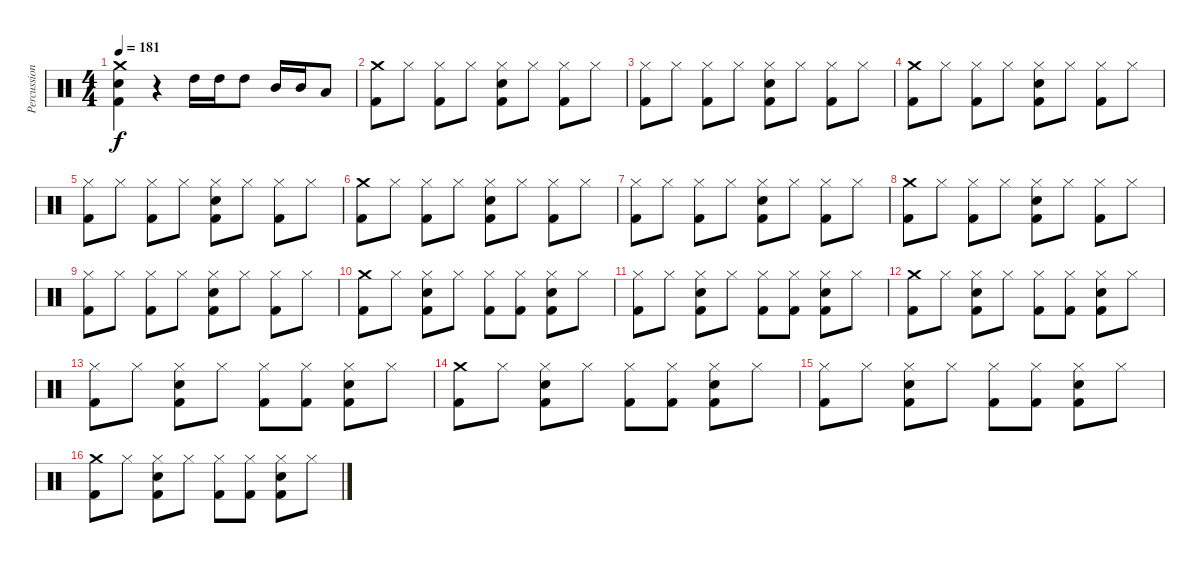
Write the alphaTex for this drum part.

\track ("Percussion" "Percussion") {instrument percussion}
\staff {score}
\articulation defaults
\ts (4 4)
\tempo 181
\clef neutral
\ks c
("Crash medium (hit)" "Electric Snare (hit)" "Kick (hit) 2").4{dy f} r.4 "High Tom (hit)".16 "High Tom (hit)".16 "High Tom (hit)".8 "Mid Tom (hit)".16 "Mid Tom (hit)".16 "Low Tom (hit)".8 |
("Crash medium (hit)" "Kick (hit) 2").8 "Hi-Hat (closed)".8 ("Hi-Hat (closed)" "Kick (hit) 2").8 "Hi-Hat (closed)".8 ("Hi-Hat (closed)" "Electric Snare (hit)" "Kick (hit) 2").8 "Hi-Hat (closed)".8 ("Hi-Hat (closed)" "Kick (hit) 2").8 "Hi-Hat (closed)".8 |
("Hi-Hat (closed)" "Kick (hit) 2").8 "Hi-Hat (closed)".8 ("Hi-Hat (closed)" "Kick (hit) 2").8 "Hi-Hat (closed)".8 ("Hi-Hat (closed)" "Electric Snare (hit)" "Kick (hit) 2").8 "Hi-Hat (closed)".8 ("Hi-Hat (closed)" "Kick (hit) 2").8 "Hi-Hat (closed)".8 |
("Crash medium (hit)" "Kick (hit) 2").8 "Hi-Hat (closed)".8 ("Hi-Hat (closed)" "Kick (hit) 2").8 "Hi-Hat (closed)".8 ("Hi-Hat (closed)" "Electric Snare (hit)" "Kick (hit) 2").8 "Hi-Hat (closed)".8 ("Hi-Hat (closed)" "Kick (hit) 2").8 "Hi-Hat (closed)".8 |
("Hi-Hat (closed)" "Kick (hit) 2").8 "Hi-Hat (closed)".8 ("Hi-Hat (closed)" "Kick (hit) 2").8 "Hi-Hat (closed)".8 ("Hi-Hat (closed)" "Electric Snare (hit)" "Kick (hit) 2").8 "Hi-Hat (closed)".8 ("Hi-Hat (closed)" "Kick (hit) 2").8 "Hi-Hat (closed)".8 |
("Crash medium (hit)" "Kick (hit) 2").8 "Hi-Hat (closed)".8 ("Hi-Hat (closed)" "Kick (hit) 2").8 "Hi-Hat (closed)".8 ("Hi-Hat (closed)" "Electric Snare (hit)" "Kick (hit) 2").8 "Hi-Hat (closed)".8 ("Hi-Hat (closed)" "Kick (hit) 2").8 "Hi-Hat (closed)".8 |
("Hi-Hat (closed)" "Kick (hit) 2").8 "Hi-Hat (closed)".8 ("Hi-Hat (closed)" "Kick (hit) 2").8 "Hi-Hat (closed)".8 ("Hi-Hat (closed)" "Electric Snare (hit)" "Kick (hit) 2").8 "Hi-Hat (closed)".8 ("Hi-Hat (closed)" "Kick (hit) 2").8 "Hi-Hat (closed)".8 |
("Crash medium (hit)" "Kick (hit) 2").8 "Hi-Hat (closed)".8 ("Hi-Hat (closed)" "Kick (hit) 2").8 "Hi-Hat (closed)".8 ("Hi-Hat (closed)" "Electric Snare (hit)" "Kick (hit) 2").8 "Hi-Hat (closed)".8 ("Hi-Hat (closed)" "Kick (hit) 2").8 "Hi-Hat (closed)".8 |
("Hi-Hat (closed)" "Kick (hit) 2").8 "Hi-Hat (closed)".8 ("Hi-Hat (closed)" "Kick (hit) 2").8 "Hi-Hat (closed)".8 ("Hi-Hat (closed)" "Electric Snare (hit)" "Kick (hit) 2").8 "Hi-Hat (closed)".8 ("Hi-Hat (closed)" "Kick (hit) 2").8 "Hi-Hat (closed)".8 |
("Crash medium (hit)" "Kick (hit) 2").8 "Hi-Hat (closed)".8 ("Hi-Hat (closed)" "Electric Snare (hit)" "Kick (hit) 2").8 "Hi-Hat (closed)".8 ("Hi-Hat (closed)" "Kick (hit) 2").8 ("Hi-Hat (closed)" "Kick (hit) 2").8 ("Hi-Hat (closed)" "Electric Snare (hit)" "Kick (hit) 2").8 "Hi-Hat (closed)".8 |
("Hi-Hat (closed)" "Kick (hit) 2").8 "Hi-Hat (closed)".8 ("Hi-Hat (closed)" "Electric Snare (hit)" "Kick (hit) 2").8 "Hi-Hat (closed)".8 ("Hi-Hat (closed)" "Kick (hit) 2").8 ("Hi-Hat (closed)" "Kick (hit) 2").8 ("Hi-Hat (closed)" "Electric Snare (hit)" "Kick (hit) 2").8 "Hi-Hat (closed)".8 |
("Crash medium (hit)" "Kick (hit) 2").8 "Hi-Hat (closed)".8 ("Hi-Hat (closed)" "Electric Snare (hit)" "Kick (hit) 2").8 "Hi-Hat (closed)".8 ("Hi-Hat (closed)" "Kick (hit) 2").8 ("Hi-Hat (closed)" "Kick (hit) 2").8 ("Hi-Hat (closed)" "Electric Snare (hit)" "Kick (hit) 2").8 "Hi-Hat (closed)".8 |
("Hi-Hat (closed)" "Kick (hit) 2").8 "Hi-Hat (closed)".8 ("Hi-Hat (closed)" "Electric Snare (hit)" "Kick (hit) 2").8 "Hi-Hat (closed)".8 ("Hi-Hat (closed)" "Kick (hit) 2").8 ("Hi-Hat (closed)" "Kick (hit) 2").8 ("Hi-Hat (closed)" "Electric Snare (hit)" "Kick (hit) 2").8 "Hi-Hat (closed)".8 |
("Crash medium (hit)" "Kick (hit) 2").8 "Hi-Hat (closed)".8 ("Hi-Hat (closed)" "Electric Snare (hit)" "Kick (hit) 2").8 "Hi-Hat (closed)".8 ("Hi-Hat (closed)" "Kick (hit) 2").8 ("Hi-Hat (closed)" "Kick (hit) 2").8 ("Hi-Hat (closed)" "Electric Snare (hit)" "Kick (hit) 2").8 "Hi-Hat (closed)".8 |
("Hi-Hat (closed)" "Kick (hit) 2").8 "Hi-Hat (closed)".8 ("Hi-Hat (closed)" "Electric Snare (hit)" "Kick (hit) 2").8 "Hi-Hat (closed)".8 ("Hi-Hat (closed)" "Kick (hit) 2").8 ("Hi-Hat (closed)" "Kick (hit) 2").8 ("Hi-Hat (closed)" "Electric Snare (hit)" "Kick (hit) 2").8 "Hi-Hat (closed)".8 |
("Crash medium (hit)" "Kick (hit) 2").8 "Hi-Hat (closed)".8 ("Hi-Hat (closed)" "Electric Snare (hit)" "Kick (hit) 2").8 "Hi-Hat (closed)".8 ("Hi-Hat (closed)" "Kick (hit) 2").8 ("Hi-Hat (closed)" "Kick (hit) 2").8 ("Hi-Hat (closed)" "Electric Snare (hit)" "Kick (hit) 2").8 "Hi-Hat (closed)".8
